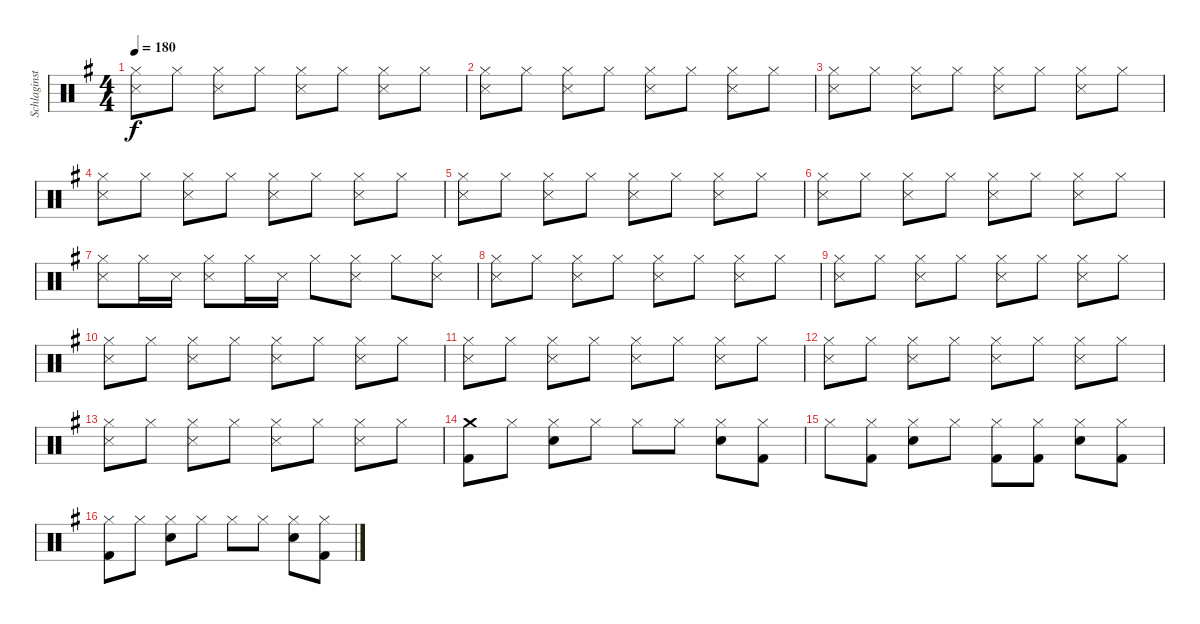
\track ("Schlaginstrumente - Auswahl" "Schlaginst") {instrument percussion}
\staff {score}
\articulation defaults
\ts (4 4)
\tempo 180
\clef neutral
\ks g
("Hi-Hat (closed)" "Snare (side stick) 3").8{dy f} "Hi-Hat (closed)".8 ("Hi-Hat (closed)" "Snare (side stick) 3").8 "Hi-Hat (closed)".8 ("Hi-Hat (closed)" "Snare (side stick) 3").8 "Hi-Hat (closed)".8 ("Hi-Hat (closed)" "Snare (side stick) 3").8 "Hi-Hat (closed)".8 |
("Hi-Hat (closed)" "Snare (side stick) 3").8 "Hi-Hat (closed)".8 ("Hi-Hat (closed)" "Snare (side stick) 3").8 "Hi-Hat (closed)".8 ("Hi-Hat (closed)" "Snare (side stick) 3").8 "Hi-Hat (closed)".8 ("Hi-Hat (closed)" "Snare (side stick) 3").8 "Hi-Hat (closed)".8 |
("Hi-Hat (closed)" "Snare (side stick) 3").8 "Hi-Hat (closed)".8 ("Hi-Hat (closed)" "Snare (side stick) 3").8 "Hi-Hat (closed)".8 ("Hi-Hat (closed)" "Snare (side stick) 3").8 "Hi-Hat (closed)".8 ("Hi-Hat (closed)" "Snare (side stick) 3").8 "Hi-Hat (closed)".8 |
("Hi-Hat (closed)" "Snare (side stick) 3").8 "Hi-Hat (closed)".8 ("Hi-Hat (closed)" "Snare (side stick) 3").8 "Hi-Hat (closed)".8 ("Hi-Hat (closed)" "Snare (side stick) 3").8 "Hi-Hat (closed)".8 ("Hi-Hat (closed)" "Snare (side stick) 3").8 "Hi-Hat (closed)".8 |
("Hi-Hat (closed)" "Snare (side stick) 3").8 "Hi-Hat (closed)".8 ("Hi-Hat (closed)" "Snare (side stick) 3").8 "Hi-Hat (closed)".8 ("Hi-Hat (closed)" "Snare (side stick) 3").8 "Hi-Hat (closed)".8 ("Hi-Hat (closed)" "Snare (side stick) 3").8 "Hi-Hat (closed)".8 |
("Hi-Hat (closed)" "Snare (side stick) 3").8 "Hi-Hat (closed)".8 ("Hi-Hat (closed)" "Snare (side stick) 3").8 "Hi-Hat (closed)".8 ("Hi-Hat (closed)" "Snare (side stick) 3").8 "Hi-Hat (closed)".8 ("Hi-Hat (closed)" "Snare (side stick) 3").8 "Hi-Hat (closed)".8 |
("Hi-Hat (closed)" "Snare (side stick) 3").8 "Hi-Hat (closed)".16 "Snare (side stick) 3".16 ("Hi-Hat (closed)" "Snare (side stick) 3").8 "Hi-Hat (closed)".16 "Snare (side stick) 3".16 "Hi-Hat (closed)".8 ("Hi-Hat (closed)" "Snare (side stick) 3").8 "Hi-Hat (closed)".8 ("Hi-Hat (closed)" "Snare (side stick) 3").8 |
("Hi-Hat (closed)" "Snare (side stick) 3").8 "Hi-Hat (closed)".8 ("Hi-Hat (closed)" "Snare (side stick) 3").8 "Hi-Hat (closed)".8 ("Hi-Hat (closed)" "Snare (side stick) 3").8 "Hi-Hat (closed)".8 ("Hi-Hat (closed)" "Snare (side stick) 3").8 "Hi-Hat (closed)".8 |
("Hi-Hat (closed)" "Snare (side stick) 3").8 "Hi-Hat (closed)".8 ("Hi-Hat (closed)" "Snare (side stick) 3").8 "Hi-Hat (closed)".8 ("Hi-Hat (closed)" "Snare (side stick) 3").8 "Hi-Hat (closed)".8 ("Hi-Hat (closed)" "Snare (side stick) 3").8 "Hi-Hat (closed)".8 |
("Hi-Hat (closed)" "Snare (side stick) 3").8 "Hi-Hat (closed)".8 ("Hi-Hat (closed)" "Snare (side stick) 3").8 "Hi-Hat (closed)".8 ("Hi-Hat (closed)" "Snare (side stick) 3").8 "Hi-Hat (closed)".8 ("Hi-Hat (closed)" "Snare (side stick) 3").8 "Hi-Hat (closed)".8 |
("Hi-Hat (closed)" "Snare (side stick) 3").8 "Hi-Hat (closed)".8 ("Hi-Hat (closed)" "Snare (side stick) 3").8 "Hi-Hat (closed)".8 ("Hi-Hat (closed)" "Snare (side stick) 3").8 "Hi-Hat (closed)".8 ("Hi-Hat (closed)" "Snare (side stick) 3").8 "Hi-Hat (closed)".8 |
("Hi-Hat (closed)" "Snare (side stick) 3").8 "Hi-Hat (closed)".8 ("Hi-Hat (closed)" "Snare (side stick) 3").8 "Hi-Hat (closed)".8 ("Hi-Hat (closed)" "Snare (side stick) 3").8 "Hi-Hat (closed)".8 ("Hi-Hat (closed)" "Snare (side stick) 3").8 "Hi-Hat (closed)".8 |
("Hi-Hat (closed)" "Snare (side stick) 3").8 "Hi-Hat (closed)".8 ("Hi-Hat (closed)" "Snare (side stick) 3").8 "Hi-Hat (closed)".8 ("Hi-Hat (closed)" "Snare (side stick) 3").8 "Hi-Hat (closed)".8 ("Hi-Hat (closed)" "Snare (side stick) 3").8 "Hi-Hat (closed)".8 |
("Crash medium (hit)" "Kick (hit) 2").8 "Hi-Hat (closed)".8 ("Hi-Hat (closed)" "Electric Snare (hit)").8 "Hi-Hat (closed)".8 "Hi-Hat (closed)".8 "Hi-Hat (closed)".8 ("Hi-Hat (closed)" "Electric Snare (hit)").8 ("Hi-Hat (closed)" "Kick (hit) 2").8 |
"Hi-Hat (closed)".8 ("Hi-Hat (closed)" "Kick (hit) 2").8 ("Hi-Hat (closed)" "Electric Snare (hit)").8 "Hi-Hat (closed)".8 ("Hi-Hat (closed)" "Kick (hit) 2").8 ("Hi-Hat (closed)" "Kick (hit) 2").8 ("Hi-Hat (closed)" "Electric Snare (hit)").8 ("Hi-Hat (closed)" "Kick (hit) 2").8 |
("Hi-Hat (closed)" "Kick (hit) 2").8 "Hi-Hat (closed)".8 ("Hi-Hat (closed)" "Electric Snare (hit)").8 "Hi-Hat (closed)".8 "Hi-Hat (closed)".8 "Hi-Hat (closed)".8 ("Hi-Hat (closed)" "Electric Snare (hit)").8 ("Hi-Hat (closed)" "Kick (hit) 2").8
